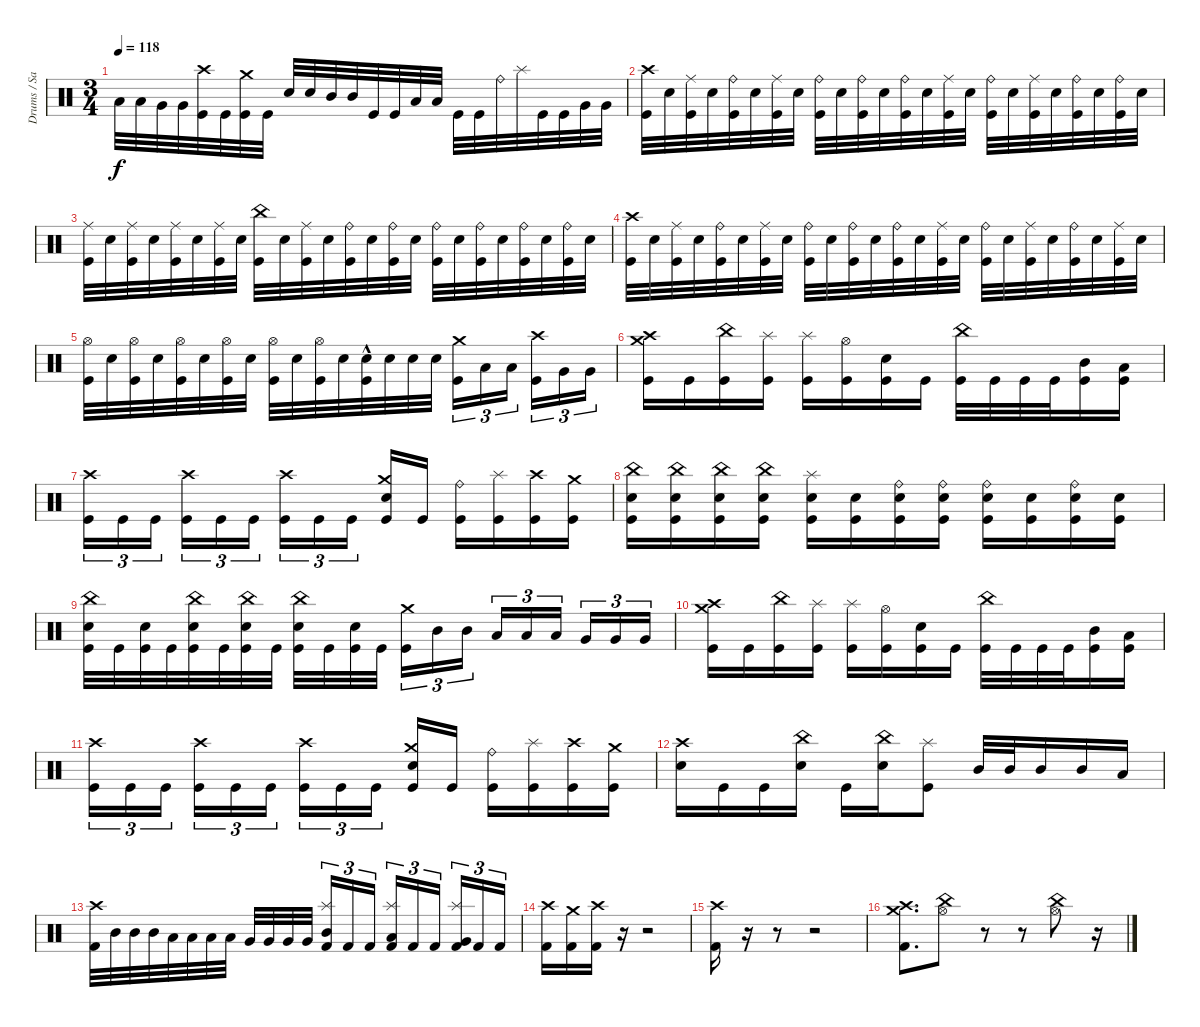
\track ("Drums / Sasha" "Drums / Sa") {instrument percussion}
\staff {score}
\articulation defaults
\ts (3 4)
\tempo 118
\clef neutral
\ks c "Low Tom (hit)".32{dy f} "Low Tom (hit)".32 "Very Low Tom (hit)".32 "Very Low Tom (hit)".32
("Crash high (hit)" "Kick (hit)").32 "Kick (hit)".32 ("Crash medium (hit)" "Kick (hit)").32 "Kick (hit)".32 "Snare (hit) 2".32 "Snare (hit) 2".32 "Mid Tom (hit)".32 "Mid Tom (hit)".32 "Kick (hit)".32 "Kick (hit)".32 "Low Tom (hit)".32 "Low Tom (hit)".32 "Kick (hit)".32 "Kick (hit)".32 "Ride (bell)".32 "Splash (hit)".32 "Kick (hit)".32 "Kick (hit)".32 "Very Low Tom (hit)".32 "Very Low Tom (hit)".32 |
("Crash high (hit)" "Kick (hit)").32 "Snare (hit) 2".32 ("Ride (middle)" "Kick (hit)").32 "Snare (hit) 2".32 ("Ride (bell)" "Kick (hit)").32 "Snare (hit) 2".32 ("Ride (middle)" "Kick (hit)").32 "Snare (hit) 2".32 ("Ride (bell)" "Kick (hit)").32 "Snare (hit) 2".32 ("Ride (bell)" "Kick (hit)").32 "Snare (hit) 2".32 ("Ride (bell)" "Kick (hit)").32 "Snare (hit) 2".32 ("Ride (middle)" "Kick (hit)").32 "Snare (hit) 2".32 ("Ride (bell)" "Kick (hit)").32 "Snare (hit) 2".32 ("Ride (middle)" "Kick (hit)").32 "Snare (hit) 2".32 ("Ride (bell)" "Kick (hit)").32 "Snare (hit) 2".32 ("Ride (bell)" "Kick (hit)").32 "Snare (hit) 2".32 |
("Ride (middle)" "Kick (hit)").32 "Snare (hit) 2".32 ("Ride (middle)" "Kick (hit)").32 "Snare (hit) 2".32 ("Ride (middle)" "Kick (hit)").32 "Snare (hit) 2".32 ("Ride (middle)" "Kick (hit)").32 "Snare (hit) 2".32 ("China (hit)" "Kick (hit)").32 "Snare (hit) 2".32 ("Ride (middle)" "Kick (hit)").32 "Snare (hit) 2".32 ("Ride (bell)" "Kick (hit)").32 "Snare (hit) 2".32 ("Ride (bell)" "Kick (hit)").32 "Snare (hit) 2".32 ("Ride (bell)" "Kick (hit)").32 "Snare (hit) 2".32 ("Ride (bell)" "Kick (hit)").32 "Snare (hit) 2".32 ("Ride (bell)" "Kick (hit)").32 "Snare (hit) 2".32 ("Ride (bell)" "Kick (hit)").32 "Snare (hit) 2".32 |
("Crash high (hit)" "Kick (hit)").32 "Snare (hit) 2".32 ("Ride (middle)" "Kick (hit)").32 "Snare (hit) 2".32 ("Ride (bell)" "Kick (hit)").32 "Snare (hit) 2".32 ("Ride (middle)" "Kick (hit)").32 "Snare (hit) 2".32 ("Ride (bell)" "Kick (hit)").32 "Snare (hit) 2".32 ("Ride (bell)" "Kick (hit)").32 "Snare (hit) 2".32 ("Ride (bell)" "Kick (hit)").32 "Snare (hit) 2".32 ("Ride (middle)" "Kick (hit)").32 "Snare (hit) 2".32 ("Ride (bell)" "Kick (hit)").32 "Snare (hit) 2".32 ("Ride (middle)" "Kick (hit)").32 "Snare (hit) 2".32 ("Ride (bell)" "Kick (hit)").32 "Snare (hit) 2".32 ("Ride (middle)" "Kick (hit)").32 "Snare (hit) 2".32 |
("Hi-Hat (open)" "Kick (hit)").32 "Snare (hit) 2".32 ("Hi-Hat (open)" "Kick (hit)").32 "Snare (hit) 2".32 ("Hi-Hat (open)" "Kick (hit)").32 "Snare (hit) 2".32 ("Hi-Hat (open)" "Kick (hit)").32 "Snare (hit) 2".32 ("Hi-Hat (open)" "Kick (hit)").32 "Snare (hit) 2".32 ("Hi-Hat (open)" "Kick (hit)").32 "Snare (hit) 2".32 ("Snare (hit) 2"{hac} "Kick (hit)").32 "Snare (hit) 2".32 "Snare (hit) 2".32 "Snare (hit) 2".32 ("Crash medium (hit)" "Kick (hit)").16{tu (3 2)} "Low Tom (hit)".16{tu (3 2)} "Low Tom (hit)".16{tu (3 2) beam splitsecondary} ("Crash high (hit)" "Kick (hit)").16{tu (3 2)} "Very Low Tom (hit)".16{tu (3 2)} "Very Low Tom (hit)".16{tu (3 2)} |
("Crash high (hit)" "Crash medium (hit)" "Kick (hit)").16 "Kick (hit)".16 ("China (hit)" "Kick (hit)").16 ("Splash (hit)" "Kick (hit)").16 ("Splash (hit)" "Kick (hit)").16 ("Hi-Hat (open)" "Kick (hit)").16 ("Snare (hit) 2" "Kick (hit)").16 "Kick (hit)".16 ("China (hit)" "Kick (hit)").32 "Kick (hit)".32 "Kick (hit)".32 "Kick (hit)".32 ("Mid Tom (hit)" "Kick (hit)").16 ("Low Tom (hit)" "Kick (hit)").16 |
("Crash high (hit)" "Kick (hit)").16{tu (3 2)} "Kick (hit)".16{tu (3 2)} "Kick (hit)".16{tu (3 2) beam splitsecondary} ("Crash high (hit)" "Kick (hit)").16{tu (3 2)} "Kick (hit)".16{tu (3 2)} "Kick (hit)".16{tu (3 2)} ("Crash high (hit)" "Kick (hit)").16{tu (3 2)} "Kick (hit)".16{tu (3 2)} "Kick (hit)".16{tu (3 2) beam splitsecondary} ("Crash medium (hit)" "Snare (hit) 2" "Kick (hit)").16 "Kick (hit)".16 ("Ride (bell)" "Kick (hit)").16 ("Splash (hit)" "Kick (hit)").16 ("Crash high (hit)" "Kick (hit)").16 ("Crash medium (hit)" "Kick (hit)").16 |
("China (hit)" "Snare (hit) 2" "Kick (hit)").16 ("China (hit)" "Snare (hit) 2" "Kick (hit)").16 ("China (hit)" "Snare (hit) 2" "Kick (hit)").16 ("China (hit)" "Snare (hit) 2" "Kick (hit)").16 ("Splash (hit)" "Snare (hit) 2" "Kick (hit)").16 ("Snare (hit) 2" "Kick (hit)").16 ("Ride (bell)" "Snare (hit) 2" "Kick (hit)").16 ("Ride (bell)" "Snare (hit) 2" "Kick (hit)").16 ("Ride (bell)" "Snare (hit) 2" "Kick (hit)").16 ("Snare (hit) 2" "Kick (hit)").16 ("Ride (bell)" "Snare (hit) 2" "Kick (hit)").16 ("Snare (hit) 2" "Kick (hit)").16 |
("China (hit)" "Snare (hit) 2" "Kick (hit)").32 "Kick (hit)".32 ("Snare (hit) 2" "Kick (hit)").32 "Kick (hit)".32 ("China (hit)" "Snare (hit) 2" "Kick (hit)").32 "Kick (hit)".32 ("China (hit)" "Snare (hit) 2" "Kick (hit)").32 "Kick (hit)".32 ("China (hit)" "Snare (hit) 2" "Kick (hit)").32 "Kick (hit)".32 ("Snare (hit) 2" "Kick (hit)").32 "Kick (hit)".32{beam splitsecondary} ("Crash medium (hit)" "Kick (hit)").16{tu (3 2)} "Mid Tom (hit)".16{tu (3 2)} "Mid Tom (hit)".16{tu (3 2)} "Low Tom (hit)".16{tu (3 2)} "Low Tom (hit)".16{tu (3 2)} "Low Tom (hit)".16{tu (3 2) beam splitsecondary} "Very Low Tom (hit)".16{tu (3 2)} "Very Low Tom (hit)".16{tu (3 2)} "Very Low Tom (hit)".16{tu (3 2)} |
("Crash high (hit)" "Crash medium (hit)" "Kick (hit)").16 "Kick (hit)".16 ("China (hit)" "Kick (hit)").16 ("Splash (hit)" "Kick (hit)").16 ("Splash (hit)" "Kick (hit)").16 ("Hi-Hat (open)" "Kick (hit)").16 ("Snare (hit) 2" "Kick (hit)").16 "Kick (hit)".16 ("China (hit)" "Kick (hit)").32 "Kick (hit)".32 "Kick (hit)".32 "Kick (hit)".32 ("Mid Tom (hit)" "Kick (hit)").16 ("Low Tom (hit)" "Kick (hit)").16 |
("Crash high (hit)" "Kick (hit)").16{tu (3 2)} "Kick (hit)".16{tu (3 2)} "Kick (hit)".16{tu (3 2) beam splitsecondary} ("Crash high (hit)" "Kick (hit)").16{tu (3 2)} "Kick (hit)".16{tu (3 2)} "Kick (hit)".16{tu (3 2)} ("Crash high (hit)" "Kick (hit)").16{tu (3 2)} "Kick (hit)".16{tu (3 2)} "Kick (hit)".16{tu (3 2) beam splitsecondary} ("Crash medium (hit)" "Snare (hit) 2" "Kick (hit)").16 "Kick (hit)".16 ("Ride (bell)" "Kick (hit)").16 ("Splash (hit)" "Kick (hit)").16 ("Crash high (hit)" "Kick (hit)").16 ("Crash medium (hit)" "Kick (hit)").16 |
("Crash high (hit)" "Snare (hit) 2").16 "Kick (hit)".16 "Kick (hit)".16 ("China (hit)" "Snare (hit) 2").16 "Kick (hit)".16 ("China (hit)" "Snare (hit) 2").16 ("Splash (hit)" "Kick (hit)").8 "Mid Tom (hit)".32 "Mid Tom (hit)".32 "Mid Tom (hit)".16 "Mid Tom (hit)".16 "Low Tom (hit)".16 |
("Crash high (hit)" "Kick (hit) 2").32 "Mid Tom (hit)".32 "Mid Tom (hit)".32 "Mid Tom (hit)".32 "Low Tom (hit)".32 "Low Tom (hit)".32 "Low Tom (hit)".32 "Low Tom (hit)".32 "Very Low Tom (hit)".32 "Very Low Tom (hit)".32 "Very Low Tom (hit)".32 "Very Low Tom (hit)".32{beam splitsecondary} ("Splash (hit)" "Mid Tom (hit)" "Kick (hit) 2").16{tu (3 2)} "Kick (hit) 2".16{tu (3 2)} "Kick (hit) 2".16{tu (3 2)} ("Splash (hit)" "Low Tom (hit)" "Kick (hit) 2").16{tu (3 2)} "Kick (hit) 2".16{tu (3 2)} "Kick (hit) 2".16{tu (3 2) beam splitsecondary} ("Splash (hit)" "Very Low Tom (hit)" "Kick (hit) 2").16{tu (3 2)} "Kick (hit) 2".16{tu (3 2)} "Kick (hit) 2".16{tu (3 2)} |
("Crash high (hit)" "Kick (hit) 2").16 ("Crash medium (hit)" "Kick (hit) 2").16 ("Crash high (hit)" "Kick (hit) 2").16 r.16 r.2 |
("Crash high (hit)" "Kick (hit) 2").16 r.16 r.8 r.2 |
("Crash high (hit)" "Crash medium (hit)" "Kick (hit) 2").8{d} ("Hi-Hat (open)" "China (hit)").8 r.8 r.8 ("Hi-Hat (open)" "China (hit)").8 r.16
